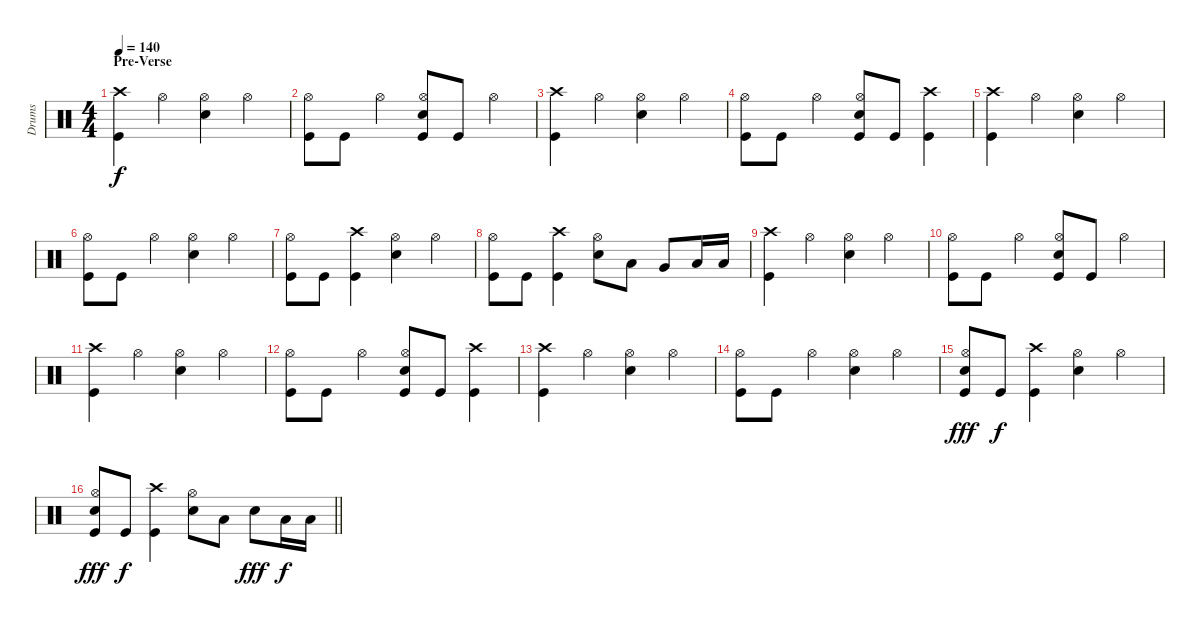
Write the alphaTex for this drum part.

\track ("Drums" "Drums") {instrument percussion}
\staff {score}
\articulation defaults
\ts (4 4)
\section ("" "Pre-Verse")
\tempo 140
\clef neutral
\ks c
("Crash high (hit)" "Kick (hit)").4{dy f} "Hi-Hat (open)".4 ("Hi-Hat (open)" "Snare (hit) 2").4 "Hi-Hat (open)".4 |
("Hi-Hat (open)" "Kick (hit)").8 "Kick (hit)".8 "Hi-Hat (open)".4 ("Snare (hit) 2" "Kick (hit)" "Hi-Hat (open)").8 "Kick (hit)".8 "Hi-Hat (open)".4 |
("Crash high (hit)" "Kick (hit)").4 "Hi-Hat (open)".4 ("Hi-Hat (open)" "Snare (hit) 2").4 "Hi-Hat (open)".4 |
("Hi-Hat (open)" "Kick (hit)").8 "Kick (hit)".8 "Hi-Hat (open)".4 ("Snare (hit) 2" "Kick (hit)" "Hi-Hat (open)").8 "Kick (hit)".8 ("Crash high (hit)" "Kick (hit)").4 |
("Crash high (hit)" "Kick (hit)").4 "Hi-Hat (open)".4 ("Hi-Hat (open)" "Snare (hit) 2").4 "Hi-Hat (open)".4 |
("Hi-Hat (open)" "Kick (hit)").8 "Kick (hit)".8 "Hi-Hat (open)".4 ("Snare (hit) 2" "Hi-Hat (open)").4 "Hi-Hat (open)".4 |
("Kick (hit)" "Hi-Hat (open)").8 "Kick (hit)".8 ("Kick (hit)" "Crash high (hit)").4 ("Snare (hit) 2" "Hi-Hat (open)").4 "Hi-Hat (open)".4 |
("Kick (hit)" "Hi-Hat (open)").8 "Kick (hit)".8 ("Kick (hit)" "Crash high (hit)").4 ("Snare (hit) 2" "Hi-Hat (open)").8 "Low Tom (hit)".8 "Very Low Tom (hit)".8 "Low Floor Tom (hit)".16 "Low Floor Tom (hit)".16 |
("Crash high (hit)" "Kick (hit)").4 "Hi-Hat (open)".4 ("Hi-Hat (open)" "Snare (hit) 2").4 "Hi-Hat (open)".4 |
("Hi-Hat (open)" "Kick (hit)").8 "Kick (hit)".8 "Hi-Hat (open)".4 ("Snare (hit) 2" "Kick (hit)" "Hi-Hat (open)").8 "Kick (hit)".8 "Hi-Hat (open)".4 |
("Crash high (hit)" "Kick (hit)").4 "Hi-Hat (open)".4 ("Hi-Hat (open)" "Snare (hit) 2").4 "Hi-Hat (open)".4 |
("Hi-Hat (open)" "Kick (hit)").8 "Kick (hit)".8 "Hi-Hat (open)".4 ("Snare (hit) 2" "Kick (hit)" "Hi-Hat (open)").8 "Kick (hit)".8 ("Crash high (hit)" "Kick (hit)").4 |
("Crash high (hit)" "Kick (hit)").4 "Hi-Hat (open)".4 ("Hi-Hat (open)" "Snare (hit) 2").4 "Hi-Hat (open)".4 |
("Hi-Hat (open)" "Kick (hit)").8 "Kick (hit)".8 "Hi-Hat (open)".4 ("Snare (hit) 2" "Hi-Hat (open)").4 "Hi-Hat (open)".4 |
("Kick (hit)" "Hi-Hat (open)" "Snare (hit) 2").8{dy fff} "Kick (hit)".8{dy f} ("Kick (hit)" "Crash high (hit)").4 ("Snare (hit) 2" "Hi-Hat (open)").4 "Hi-Hat (open)".4 |
\barLineRight lightlight
("Kick (hit)" "Hi-Hat (open)" "Snare (hit) 2").8{dy fff} "Kick (hit)".8{dy f} ("Kick (hit)" "Crash high (hit)").4 ("Snare (hit) 2" "Hi-Hat (open)").8 "Low Tom (hit)".8 "Snare (hit) 2".8{dy fff} "Low Floor Tom (hit)".16{dy f} "Low Floor Tom (hit)".16
